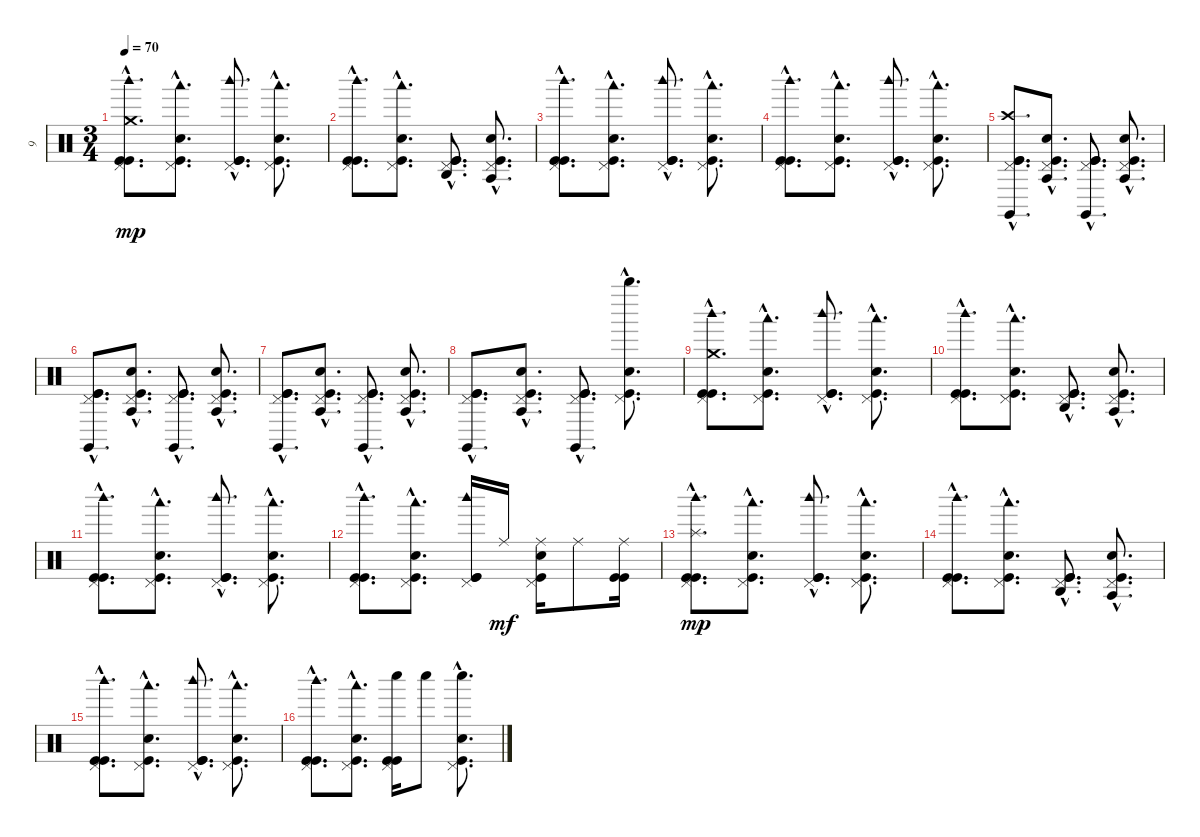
\track ("9" "9") {instrument percussion}
\staff {score}
\articulation defaults
\ts (3 4)
\tempo 70
\clef neutral
\ks c
("Kick (hit)"{hac} "Kick (hit)"{hac} "Woodblock high (hit)"{hac} "Pedal Hi-Hat (hit)"{hac} "Crash medium (hit)"{hac}).8{d dy mp} ("Kick (hit)"{hac} "Snare (hit) 2"{hac} "Woodblock low (hit)"{hac} "Pedal Hi-Hat (hit)"{hac}).8{d} ("Kick (hit)"{hac} "Kick (hit)"{hac} "Woodblock high (hit)"{hac} "Pedal Hi-Hat (hit)"{hac}).8{d} ("Kick (hit)"{hac} "Snare (hit) 2"{hac} "Woodblock low (hit)"{hac} "Pedal Hi-Hat (hit)"{hac}).8{d} |
("Kick (hit)"{hac} "Kick (hit)"{hac} "Woodblock high (hit)"{hac} "Pedal Hi-Hat (hit)"{hac}).8{d} ("Kick (hit)"{hac} "Snare (hit) 2"{hac} "Woodblock low (hit)"{hac} "Pedal Hi-Hat (hit)"{hac}).8{d} ("Kick (hit)"{hac} "Kick (hit)"{hac} "Agogo high (hit)"{hac} "Pedal Hi-Hat (hit)"{hac}).8{d} ("Kick (hit)"{hac} "Snare (hit) 2"{hac} "Agogo tow (hit)"{hac} "Pedal Hi-Hat (hit)"{hac}).8{d} |
("Kick (hit)"{hac} "Kick (hit)"{hac} "Woodblock high (hit)"{hac} "Pedal Hi-Hat (hit)"{hac}).8{d} ("Kick (hit)"{hac} "Snare (hit) 2"{hac} "Woodblock low (hit)"{hac} "Pedal Hi-Hat (hit)"{hac}).8{d} ("Kick (hit)"{hac} "Kick (hit)"{hac} "Woodblock high (hit)"{hac} "Pedal Hi-Hat (hit)"{hac}).8{d} ("Kick (hit)"{hac} "Snare (hit) 2"{hac} "Woodblock low (hit)"{hac} "Pedal Hi-Hat (hit)"{hac}).8{d} |
("Kick (hit)"{hac} "Kick (hit)"{hac} "Woodblock high (hit)"{hac} "Pedal Hi-Hat (hit)"{hac}).8{d} ("Kick (hit)"{hac} "Snare (hit) 2"{hac} "Woodblock low (hit)"{hac} "Pedal Hi-Hat (hit)"{hac}).8{d} ("Kick (hit)"{hac} "Kick (hit)"{hac} "Woodblock high (hit)"{hac} "Pedal Hi-Hat (hit)"{hac}).8{d} ("Kick (hit)"{hac} "Snare (hit) 2"{hac} "Woodblock low (hit)"{hac} "Pedal Hi-Hat (hit)"{hac}).8{d} |
("Kick (hit)"{hac} "Kick (hit)"{hac} "Claves (hit)"{hac} "Pedal Hi-Hat (hit)"{hac} "Crash high (hit)"{hac}).8{d} ("Kick (hit)"{hac} "Snare (hit) 2"{hac} "Agogo tow (hit)"{hac} "Pedal Hi-Hat (hit)"{hac}).8{d} ("Kick (hit)"{hac} "Kick (hit)"{hac} "Claves (hit)"{hac} "Pedal Hi-Hat (hit)"{hac}).8{d} ("Kick (hit)"{hac} "Snare (hit) 2"{hac} "Agogo tow (hit)"{hac} "Pedal Hi-Hat (hit)"{hac}).8{d} |
("Kick (hit)"{hac} "Kick (hit)"{hac} "Claves (hit)"{hac} "Pedal Hi-Hat (hit)"{hac}).8{d} ("Kick (hit)"{hac} "Snare (hit) 2"{hac} "Agogo tow (hit)"{hac} "Pedal Hi-Hat (hit)"{hac}).8{d} ("Kick (hit)"{hac} "Kick (hit)"{hac} "Claves (hit)"{hac} "Pedal Hi-Hat (hit)"{hac}).8{d} ("Kick (hit)"{hac} "Snare (hit) 2"{hac} "Agogo tow (hit)"{hac} "Pedal Hi-Hat (hit)"{hac}).8{d} |
("Kick (hit)"{hac} "Kick (hit)"{hac} "Claves (hit)"{hac} "Pedal Hi-Hat (hit)"{hac}).8{d} ("Kick (hit)"{hac} "Snare (hit) 2"{hac} "Agogo tow (hit)"{hac} "Pedal Hi-Hat (hit)"{hac}).8{d} ("Kick (hit)"{hac} "Kick (hit)"{hac} "Claves (hit)"{hac} "Pedal Hi-Hat (hit)"{hac}).8{d} ("Kick (hit)"{hac} "Snare (hit) 2"{hac} "Agogo tow (hit)"{hac} "Pedal Hi-Hat (hit)"{hac}).8{d} |
("Kick (hit)"{hac} "Kick (hit)"{hac} "Claves (hit)"{hac} "Pedal Hi-Hat (hit)"{hac}).8{d} ("Kick (hit)"{hac} "Snare (hit) 2"{hac} "Agogo tow (hit)"{hac} "Pedal Hi-Hat (hit)"{hac}).8{d} ("Kick (hit)"{hac} "Kick (hit)"{hac} "Claves (hit)"{hac} "Pedal Hi-Hat (hit)"{hac}).8{d} ("Kick (hit)"{hac} "Snare (hit) 2"{hac} "Whistle high (hit)"{hac} "Pedal Hi-Hat (hit)"{hac}).8{d} |
("Kick (hit)"{hac} "Kick (hit)"{hac} "Woodblock high (hit)"{hac} "Pedal Hi-Hat (hit)"{hac} "Crash medium (hit)"{hac}).8{d} ("Kick (hit)"{hac} "Snare (hit) 2"{hac} "Woodblock low (hit)"{hac} "Pedal Hi-Hat (hit)"{hac}).8{d} ("Kick (hit)"{hac} "Kick (hit)"{hac} "Woodblock high (hit)"{hac} "Pedal Hi-Hat (hit)"{hac}).8{d} ("Kick (hit)"{hac} "Snare (hit) 2"{hac} "Woodblock low (hit)"{hac} "Pedal Hi-Hat (hit)"{hac}).8{d} |
("Kick (hit)"{hac} "Kick (hit)"{hac} "Woodblock high (hit)"{hac} "Pedal Hi-Hat (hit)"{hac}).8{d} ("Kick (hit)"{hac} "Snare (hit) 2"{hac} "Woodblock low (hit)"{hac} "Pedal Hi-Hat (hit)"{hac}).8{d} ("Kick (hit)"{hac} "Kick (hit)"{hac} "Agogo high (hit)"{hac} "Pedal Hi-Hat (hit)"{hac}).8{d} ("Kick (hit)"{hac} "Snare (hit) 2"{hac} "Agogo tow (hit)"{hac} "Pedal Hi-Hat (hit)"{hac}).8{d} |
("Kick (hit)"{hac} "Kick (hit)"{hac} "Woodblock high (hit)"{hac} "Pedal Hi-Hat (hit)"{hac}).8{d} ("Kick (hit)"{hac} "Snare (hit) 2"{hac} "Woodblock low (hit)"{hac} "Pedal Hi-Hat (hit)"{hac}).8{d} ("Kick (hit)"{hac} "Kick (hit)"{hac} "Woodblock high (hit)"{hac} "Pedal Hi-Hat (hit)"{hac}).8{d} ("Kick (hit)"{hac} "Snare (hit) 2"{hac} "Woodblock low (hit)"{hac} "Pedal Hi-Hat (hit)"{hac}).8{d} |
("Kick (hit)"{hac} "Kick (hit)"{hac} "Woodblock high (hit)"{hac} "Pedal Hi-Hat (hit)"{hac}).8{d} ("Kick (hit)"{hac} "Snare (hit) 2"{hac} "Woodblock low (hit)"{hac} "Pedal Hi-Hat (hit)"{hac}).8{d} ("Kick (hit)" "Kick (hit)" "Woodblock high (hit)" "Pedal Hi-Hat (hit)").16 "Ride (middle)".16{dy mf} ("Kick (hit)" "Snare (hit) 2" "Ride (middle)" "Pedal Hi-Hat (hit)").16 "Ride (middle)".8 ("Kick (hit)" "Kick (hit)" "Ride (middle)").16 |
("Kick (hit)"{hac} "Kick (hit)"{hac} "Woodblock high (hit)"{hac} "Pedal Hi-Hat (hit)"{hac} "Splash (hit)"{hac}).8{d dy mp} ("Kick (hit)"{hac} "Snare (hit) 2"{hac} "Woodblock low (hit)"{hac} "Pedal Hi-Hat (hit)"{hac}).8{d} ("Kick (hit)"{hac} "Kick (hit)"{hac} "Woodblock high (hit)"{hac} "Pedal Hi-Hat (hit)"{hac}).8{d} ("Kick (hit)"{hac} "Snare (hit) 2"{hac} "Woodblock low (hit)"{hac} "Pedal Hi-Hat (hit)"{hac}).8{d} |
("Kick (hit)"{hac} "Kick (hit)"{hac} "Woodblock high (hit)"{hac} "Pedal Hi-Hat (hit)"{hac}).8{d} ("Kick (hit)"{hac} "Snare (hit) 2"{hac} "Woodblock low (hit)"{hac} "Pedal Hi-Hat (hit)"{hac}).8{d} ("Kick (hit)"{hac} "Kick (hit)"{hac} "Agogo high (hit)"{hac} "Pedal Hi-Hat (hit)"{hac}).8{d} ("Kick (hit)"{hac} "Snare (hit) 2"{hac} "Agogo tow (hit)"{hac} "Pedal Hi-Hat (hit)"{hac}).8{d} |
("Kick (hit)"{hac} "Kick (hit)"{hac} "Woodblock high (hit)"{hac} "Pedal Hi-Hat (hit)"{hac}).8{d} ("Kick (hit)"{hac} "Snare (hit) 2"{hac} "Woodblock low (hit)"{hac} "Pedal Hi-Hat (hit)"{hac}).8{d} ("Kick (hit)"{hac} "Kick (hit)"{hac} "Woodblock high (hit)"{hac} "Pedal Hi-Hat (hit)"{hac}).8{d} ("Kick (hit)"{hac} "Snare (hit) 2"{hac} "Woodblock low (hit)"{hac} "Pedal Hi-Hat (hit)"{hac}).8{d} |
("Kick (hit)"{hac} "Kick (hit)"{hac} "Woodblock high (hit)"{hac} "Pedal Hi-Hat (hit)"{hac}).8{d} ("Kick (hit)"{hac} "Snare (hit) 2"{hac} "Woodblock low (hit)"{hac} "Pedal Hi-Hat (hit)"{hac}).8{d} ("Kick (hit)" "Kick (hit)" "Whistle low (hit)" "Pedal Hi-Hat (hit)").16 "Whistle low (hit)".8 ("Kick (hit)"{hac} "Snare (hit) 2"{hac} "Whistle low (hit)"{hac} "Pedal Hi-Hat (hit)"{hac}).8{d}
